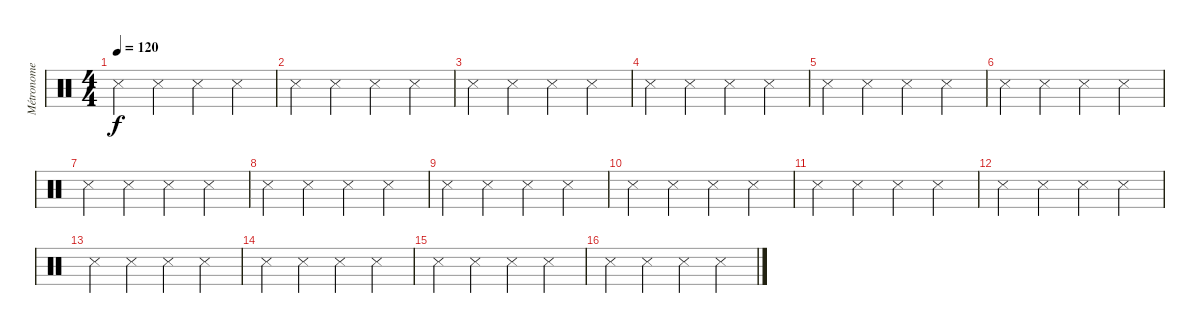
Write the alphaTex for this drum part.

\track ("Métronome" "Métronome") {instrument percussion}
\staff {score}
\articulation defaults
\ts (4 4)
\tempo 120
\clef neutral
\ks c "Metronome (hit)".4{dy f} "Metronome (hit)".4 "Metronome (hit)".4 "Metronome (hit)".4
|
"Metronome (hit)".4 "Metronome (hit)".4 "Metronome (hit)".4 "Metronome (hit)".4 |
"Metronome (hit)".4 "Metronome (hit)".4 "Metronome (hit)".4 "Metronome (hit)".4 |
"Metronome (hit)".4 "Metronome (hit)".4 "Metronome (hit)".4 "Metronome (hit)".4 |
"Metronome (hit)".4 "Metronome (hit)".4 "Metronome (hit)".4 "Metronome (hit)".4 |
"Metronome (hit)".4 "Metronome (hit)".4 "Metronome (hit)".4 "Metronome (hit)".4 |
"Metronome (hit)".4 "Metronome (hit)".4 "Metronome (hit)".4 "Metronome (hit)".4 |
"Metronome (hit)".4 "Metronome (hit)".4 "Metronome (hit)".4 "Metronome (hit)".4 |
"Metronome (hit)".4 "Metronome (hit)".4 "Metronome (hit)".4 "Metronome (hit)".4 |
"Metronome (hit)".4 "Metronome (hit)".4 "Metronome (hit)".4 "Metronome (hit)".4 |
"Metronome (hit)".4 "Metronome (hit)".4 "Metronome (hit)".4 "Metronome (hit)".4 |
"Metronome (hit)".4 "Metronome (hit)".4 "Metronome (hit)".4 "Metronome (hit)".4 |
"Metronome (hit)".4 "Metronome (hit)".4 "Metronome (hit)".4 "Metronome (hit)".4 |
"Metronome (hit)".4 "Metronome (hit)".4 "Metronome (hit)".4 "Metronome (hit)".4 |
"Metronome (hit)".4 "Metronome (hit)".4 "Metronome (hit)".4 "Metronome (hit)".4 |
"Metronome (hit)".4 "Metronome (hit)".4 "Metronome (hit)".4 "Metronome (hit)".4
